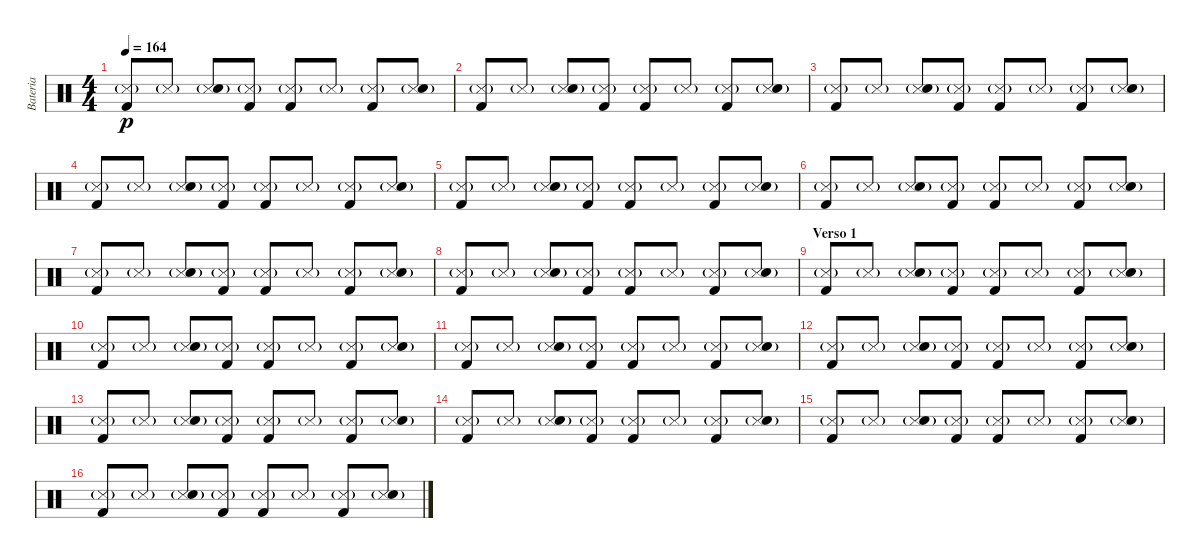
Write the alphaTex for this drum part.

\track ("Bateria" "Bateria") {instrument percussion}
\staff {score}
\articulation defaults
\ts (4 4)
\tempo 164
\clef neutral
\ks c
("Snare (side stick) 3"{g} "Kick (hit) 2").8{dy p volume 11} "Snare (side stick) 3"{g}.8 ("Snare (side stick) 3"{g} "Electric Snare (hit)").8 ("Snare (side stick) 3"{g} "Kick (hit) 2").8 ("Snare (side stick) 3"{g} "Kick (hit) 2").8 "Snare (side stick) 3"{g}.8 ("Snare (side stick) 3"{g} "Kick (hit) 2").8 ("Snare (side stick) 3"{g} "Electric Snare (hit)").8 |
("Snare (side stick) 3"{g} "Kick (hit) 2").8 "Snare (side stick) 3"{g}.8 ("Snare (side stick) 3"{g} "Electric Snare (hit)").8 ("Snare (side stick) 3"{g} "Kick (hit) 2").8 ("Snare (side stick) 3"{g} "Kick (hit) 2").8 "Snare (side stick) 3"{g}.8 ("Snare (side stick) 3"{g} "Kick (hit) 2").8 ("Snare (side stick) 3"{g} "Electric Snare (hit)").8 |
("Snare (side stick) 3"{g} "Kick (hit) 2").8 "Snare (side stick) 3"{g}.8 ("Snare (side stick) 3"{g} "Electric Snare (hit)").8 ("Snare (side stick) 3"{g} "Kick (hit) 2").8 ("Snare (side stick) 3"{g} "Kick (hit) 2").8 "Snare (side stick) 3"{g}.8 ("Snare (side stick) 3"{g} "Kick (hit) 2").8 ("Snare (side stick) 3"{g} "Electric Snare (hit)").8 |
("Snare (side stick) 3"{g} "Kick (hit) 2").8 "Snare (side stick) 3"{g}.8 ("Snare (side stick) 3"{g} "Electric Snare (hit)").8 ("Snare (side stick) 3"{g} "Kick (hit) 2").8 ("Snare (side stick) 3"{g} "Kick (hit) 2").8 "Snare (side stick) 3"{g}.8 ("Snare (side stick) 3"{g} "Kick (hit) 2").8 ("Snare (side stick) 3"{g} "Electric Snare (hit)").8 |
("Snare (side stick) 3"{g} "Kick (hit) 2").8 "Snare (side stick) 3"{g}.8 ("Snare (side stick) 3"{g} "Electric Snare (hit)").8 ("Snare (side stick) 3"{g} "Kick (hit) 2").8 ("Snare (side stick) 3"{g} "Kick (hit) 2").8 "Snare (side stick) 3"{g}.8 ("Snare (side stick) 3"{g} "Kick (hit) 2").8 ("Snare (side stick) 3"{g} "Electric Snare (hit)").8 |
("Snare (side stick) 3"{g} "Kick (hit) 2").8 "Snare (side stick) 3"{g}.8 ("Snare (side stick) 3"{g} "Electric Snare (hit)").8 ("Snare (side stick) 3"{g} "Kick (hit) 2").8 ("Snare (side stick) 3"{g} "Kick (hit) 2").8 "Snare (side stick) 3"{g}.8 ("Snare (side stick) 3"{g} "Kick (hit) 2").8 ("Snare (side stick) 3"{g} "Electric Snare (hit)").8 |
("Snare (side stick) 3"{g} "Kick (hit) 2").8 "Snare (side stick) 3"{g}.8 ("Snare (side stick) 3"{g} "Electric Snare (hit)").8 ("Snare (side stick) 3"{g} "Kick (hit) 2").8 ("Snare (side stick) 3"{g} "Kick (hit) 2").8 "Snare (side stick) 3"{g}.8 ("Snare (side stick) 3"{g} "Kick (hit) 2").8 ("Snare (side stick) 3"{g} "Electric Snare (hit)").8 |
("Snare (side stick) 3"{g} "Kick (hit) 2").8 "Snare (side stick) 3"{g}.8 ("Snare (side stick) 3"{g} "Electric Snare (hit)").8 ("Snare (side stick) 3"{g} "Kick (hit) 2").8 ("Snare (side stick) 3"{g} "Kick (hit) 2").8 "Snare (side stick) 3"{g}.8 ("Snare (side stick) 3"{g} "Kick (hit) 2").8 ("Snare (side stick) 3"{g} "Electric Snare (hit)").8 |
\section ("" "Verso 1")
("Snare (side stick) 3"{g} "Kick (hit) 2").8 "Snare (side stick) 3"{g}.8 ("Snare (side stick) 3"{g} "Electric Snare (hit)").8 ("Snare (side stick) 3"{g} "Kick (hit) 2").8 ("Snare (side stick) 3"{g} "Kick (hit) 2").8 "Snare (side stick) 3"{g}.8 ("Snare (side stick) 3"{g} "Kick (hit) 2").8 ("Snare (side stick) 3"{g} "Electric Snare (hit)").8 |
("Snare (side stick) 3"{g} "Kick (hit) 2").8 "Snare (side stick) 3"{g}.8 ("Snare (side stick) 3"{g} "Electric Snare (hit)").8 ("Snare (side stick) 3"{g} "Kick (hit) 2").8 ("Snare (side stick) 3"{g} "Kick (hit) 2").8 "Snare (side stick) 3"{g}.8 ("Snare (side stick) 3"{g} "Kick (hit) 2").8 ("Snare (side stick) 3"{g} "Electric Snare (hit)").8 |
("Snare (side stick) 3"{g} "Kick (hit) 2").8 "Snare (side stick) 3"{g}.8 ("Snare (side stick) 3"{g} "Electric Snare (hit)").8 ("Snare (side stick) 3"{g} "Kick (hit) 2").8 ("Snare (side stick) 3"{g} "Kick (hit) 2").8 "Snare (side stick) 3"{g}.8 ("Snare (side stick) 3"{g} "Kick (hit) 2").8 ("Snare (side stick) 3"{g} "Electric Snare (hit)").8 |
("Snare (side stick) 3"{g} "Kick (hit) 2").8 "Snare (side stick) 3"{g}.8 ("Snare (side stick) 3"{g} "Electric Snare (hit)").8 ("Snare (side stick) 3"{g} "Kick (hit) 2").8 ("Snare (side stick) 3"{g} "Kick (hit) 2").8 "Snare (side stick) 3"{g}.8 ("Snare (side stick) 3"{g} "Kick (hit) 2").8 ("Snare (side stick) 3"{g} "Electric Snare (hit)").8 |
("Snare (side stick) 3"{g} "Kick (hit) 2").8 "Snare (side stick) 3"{g}.8 ("Snare (side stick) 3"{g} "Electric Snare (hit)").8 ("Snare (side stick) 3"{g} "Kick (hit) 2").8 ("Snare (side stick) 3"{g} "Kick (hit) 2").8 "Snare (side stick) 3"{g}.8 ("Snare (side stick) 3"{g} "Kick (hit) 2").8 ("Snare (side stick) 3"{g} "Electric Snare (hit)").8 |
("Snare (side stick) 3"{g} "Kick (hit) 2").8 "Snare (side stick) 3"{g}.8 ("Snare (side stick) 3"{g} "Electric Snare (hit)").8 ("Snare (side stick) 3"{g} "Kick (hit) 2").8 ("Snare (side stick) 3"{g} "Kick (hit) 2").8 "Snare (side stick) 3"{g}.8 ("Snare (side stick) 3"{g} "Kick (hit) 2").8 ("Snare (side stick) 3"{g} "Electric Snare (hit)").8 |
("Snare (side stick) 3"{g} "Kick (hit) 2").8 "Snare (side stick) 3"{g}.8 ("Snare (side stick) 3"{g} "Electric Snare (hit)").8 ("Snare (side stick) 3"{g} "Kick (hit) 2").8 ("Snare (side stick) 3"{g} "Kick (hit) 2").8 "Snare (side stick) 3"{g}.8 ("Snare (side stick) 3"{g} "Kick (hit) 2").8 ("Snare (side stick) 3"{g} "Electric Snare (hit)").8 |
("Snare (side stick) 3"{g} "Kick (hit) 2").8 "Snare (side stick) 3"{g}.8 ("Snare (side stick) 3"{g} "Electric Snare (hit)").8 ("Snare (side stick) 3"{g} "Kick (hit) 2").8 ("Snare (side stick) 3"{g} "Kick (hit) 2").8 "Snare (side stick) 3"{g}.8 ("Snare (side stick) 3"{g} "Kick (hit) 2").8 ("Snare (side stick) 3"{g} "Electric Snare (hit)").8
